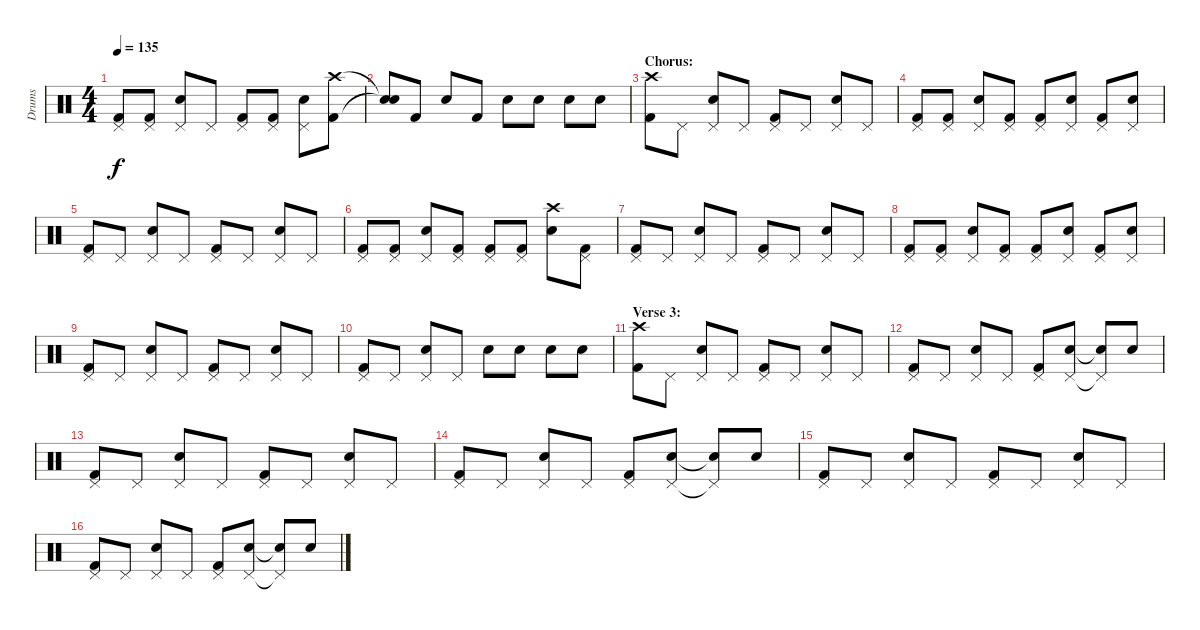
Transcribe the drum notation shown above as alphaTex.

\track ("Drums" "Drums") {instrument percussion}
\staff {score}
\articulation defaults
\ts (4 4)
\tempo 135
\clef neutral
\ks c
("Pedal Hi-Hat (hit)"{t} "Kick (hit) 2"{t}).8{dy f} ("Pedal Hi-Hat (hit)" "Kick (hit) 2").8 ("Pedal Hi-Hat (hit)" "Snare (hit) 2").8 "Pedal Hi-Hat (hit)".8 ("Pedal Hi-Hat (hit)" "Kick (hit) 2").8 ("Pedal Hi-Hat (hit)" "Kick (hit) 2").8 ("Pedal Hi-Hat (hit)" "Snare (hit) 2").8 ("Crash high (hit)" "Kick (hit) 2").8 |
("Snare (hit)"{t} "Snare (hit)"{t}).8 "Kick (hit) 2".8 "Snare (hit) 2".8 "Kick (hit) 2".8 "Snare (hit) 2".8 "Snare (hit) 2".8 "Snare (hit) 2".8 "Snare (hit) 2".8 |
\section ("" "Chorus:")
("Crash high (hit)" "Kick (hit) 2").8 "Pedal Hi-Hat (hit)".8 ("Pedal Hi-Hat (hit)" "Snare (hit) 2").8 "Pedal Hi-Hat (hit)".8 ("Pedal Hi-Hat (hit)" "Kick (hit) 2").8 "Pedal Hi-Hat (hit)".8 ("Pedal Hi-Hat (hit)" "Snare (hit) 2").8 "Pedal Hi-Hat (hit)".8 |
("Pedal Hi-Hat (hit)" "Kick (hit) 2").8 ("Pedal Hi-Hat (hit)" "Kick (hit) 2").8 ("Pedal Hi-Hat (hit)" "Snare (hit) 2").8 ("Pedal Hi-Hat (hit)" "Kick (hit) 2").8 ("Pedal Hi-Hat (hit)" "Kick (hit) 2").8 ("Pedal Hi-Hat (hit)" "Snare (hit) 2").8 ("Pedal Hi-Hat (hit)" "Kick (hit) 2").8 ("Pedal Hi-Hat (hit)" "Snare (hit) 2").8 |
("Pedal Hi-Hat (hit)" "Kick (hit) 2").8 "Pedal Hi-Hat (hit)".8 ("Pedal Hi-Hat (hit)" "Snare (hit) 2").8 "Pedal Hi-Hat (hit)".8 ("Pedal Hi-Hat (hit)" "Kick (hit) 2").8 "Pedal Hi-Hat (hit)".8 ("Pedal Hi-Hat (hit)" "Snare (hit) 2").8 "Pedal Hi-Hat (hit)".8 |
("Pedal Hi-Hat (hit)" "Kick (hit) 2").8 ("Pedal Hi-Hat (hit)" "Kick (hit) 2").8 ("Pedal Hi-Hat (hit)" "Snare (hit) 2").8 ("Pedal Hi-Hat (hit)" "Kick (hit) 2").8 ("Pedal Hi-Hat (hit)" "Kick (hit) 2").8 ("Pedal Hi-Hat (hit)" "Kick (hit) 2").8 ("Crash high (hit)" "Snare (hit) 2").8 ("Pedal Hi-Hat (hit)" "Kick (hit) 2").8 |
("Pedal Hi-Hat (hit)" "Kick (hit) 2").8 "Pedal Hi-Hat (hit)".8 ("Pedal Hi-Hat (hit)" "Snare (hit) 2").8 "Pedal Hi-Hat (hit)".8 ("Pedal Hi-Hat (hit)" "Kick (hit) 2").8 "Pedal Hi-Hat (hit)".8 ("Pedal Hi-Hat (hit)" "Snare (hit) 2").8 "Pedal Hi-Hat (hit)".8 |
("Pedal Hi-Hat (hit)" "Kick (hit) 2").8 ("Pedal Hi-Hat (hit)" "Kick (hit) 2").8 ("Pedal Hi-Hat (hit)" "Snare (hit) 2").8 ("Pedal Hi-Hat (hit)" "Kick (hit) 2").8 ("Pedal Hi-Hat (hit)" "Kick (hit) 2").8 ("Pedal Hi-Hat (hit)" "Snare (hit) 2").8 ("Pedal Hi-Hat (hit)" "Kick (hit) 2").8 ("Pedal Hi-Hat (hit)" "Snare (hit) 2").8 |
("Pedal Hi-Hat (hit)" "Kick (hit) 2").8 "Pedal Hi-Hat (hit)".8 ("Pedal Hi-Hat (hit)" "Snare (hit) 2").8 "Pedal Hi-Hat (hit)".8 ("Pedal Hi-Hat (hit)" "Kick (hit) 2").8 "Pedal Hi-Hat (hit)".8 ("Pedal Hi-Hat (hit)" "Snare (hit) 2").8 "Pedal Hi-Hat (hit)".8 |
("Pedal Hi-Hat (hit)" "Kick (hit) 2").8 "Pedal Hi-Hat (hit)".8 ("Pedal Hi-Hat (hit)" "Snare (hit) 2").8 "Pedal Hi-Hat (hit)".8 "Snare (hit) 2".8 "Snare (hit) 2".8 "Snare (hit) 2".8 "Snare (hit) 2".8 |
\section ("" "Verse 3:")
("Crash high (hit)" "Kick (hit) 2").8 "Pedal Hi-Hat (hit)".8 ("Pedal Hi-Hat (hit)" "Snare (hit) 2").8 "Pedal Hi-Hat (hit)".8 ("Pedal Hi-Hat (hit)" "Kick (hit) 2").8 "Pedal Hi-Hat (hit)".8 ("Pedal Hi-Hat (hit)" "Snare (hit) 2").8 "Pedal Hi-Hat (hit)".8 |
("Pedal Hi-Hat (hit)" "Kick (hit) 2").8 "Pedal Hi-Hat (hit)".8 ("Pedal Hi-Hat (hit)" "Snare (hit) 2").8 "Pedal Hi-Hat (hit)".8 ("Pedal Hi-Hat (hit)" "Kick (hit) 2").8 ("Pedal Hi-Hat (hit)" "Snare (hit) 2").8 ("Pedal Hi-Hat (hit)"{t} "Snare (hit)"{t}).8 "Snare (hit) 2".8 |
("Pedal Hi-Hat (hit)" "Kick (hit) 2").8 "Pedal Hi-Hat (hit)".8 ("Pedal Hi-Hat (hit)" "Snare (hit) 2").8 "Pedal Hi-Hat (hit)".8 ("Pedal Hi-Hat (hit)" "Kick (hit) 2").8 "Pedal Hi-Hat (hit)".8 ("Pedal Hi-Hat (hit)" "Snare (hit) 2").8 "Pedal Hi-Hat (hit)".8 |
("Pedal Hi-Hat (hit)" "Kick (hit) 2").8 "Pedal Hi-Hat (hit)".8 ("Pedal Hi-Hat (hit)" "Snare (hit) 2").8 "Pedal Hi-Hat (hit)".8 ("Pedal Hi-Hat (hit)" "Kick (hit) 2").8 ("Pedal Hi-Hat (hit)" "Snare (hit) 2").8 ("Pedal Hi-Hat (hit)"{t} "Snare (hit)"{t}).8 "Snare (hit) 2".8 |
("Pedal Hi-Hat (hit)" "Kick (hit) 2").8 "Pedal Hi-Hat (hit)".8 ("Pedal Hi-Hat (hit)" "Snare (hit) 2").8 "Pedal Hi-Hat (hit)".8 ("Pedal Hi-Hat (hit)" "Kick (hit) 2").8 "Pedal Hi-Hat (hit)".8 ("Pedal Hi-Hat (hit)" "Snare (hit) 2").8 "Pedal Hi-Hat (hit)".8 |
("Pedal Hi-Hat (hit)" "Kick (hit) 2").8 "Pedal Hi-Hat (hit)".8 ("Pedal Hi-Hat (hit)" "Snare (hit) 2").8 "Pedal Hi-Hat (hit)".8 ("Pedal Hi-Hat (hit)" "Kick (hit) 2").8 ("Pedal Hi-Hat (hit)" "Snare (hit) 2").8 ("Pedal Hi-Hat (hit)"{t} "Snare (hit)"{t}).8 "Snare (hit) 2".8
